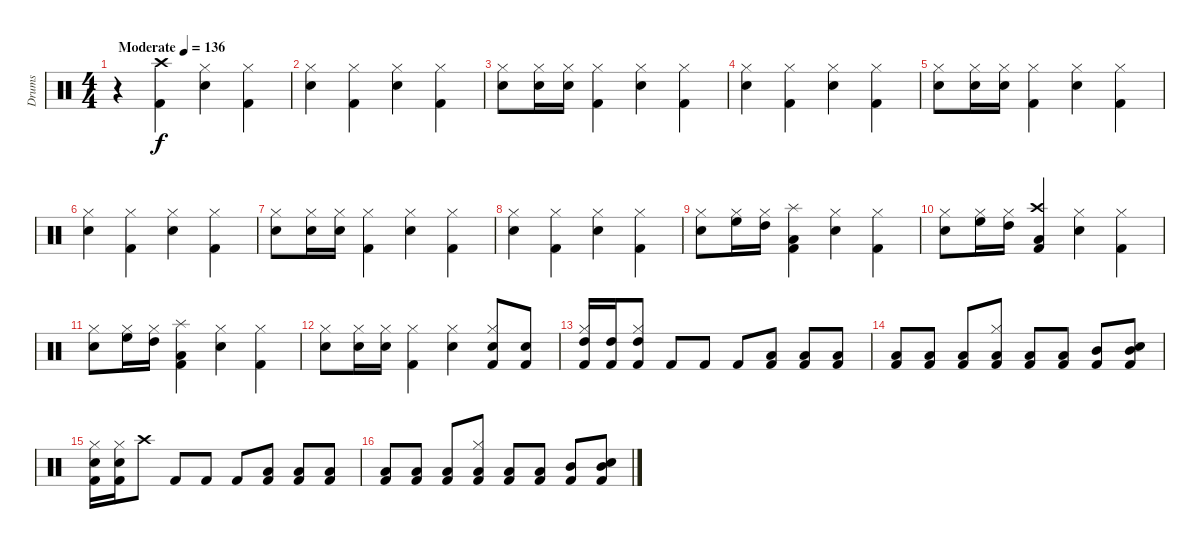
\track ("Drums" "Drums") {instrument percussion}
\staff {score}
\articulation defaults
\ts (4 4)
\tempo (136 "Moderate")
\clef neutral
\ks c
r.4{dy f} ("Kick (hit) 2" "Crash high (hit)").4 ("Hi-Hat (closed)" "Snare (hit) 2").4 ("Kick (hit) 2" "Hi-Hat (closed)").4 |
("Hi-Hat (closed)" "Snare (hit) 2").4 ("Kick (hit) 2" "Hi-Hat (closed)").4 ("Hi-Hat (closed)" "Snare (hit) 2").4 ("Kick (hit) 2" "Hi-Hat (closed)").4 |
("Hi-Hat (closed)" "Snare (hit) 2").8 ("Hi-Hat (closed)" "Snare (hit) 2").16 ("Hi-Hat (closed)" "Snare (hit) 2").16 ("Kick (hit) 2" "Hi-Hat (closed)").4 ("Hi-Hat (closed)" "Snare (hit) 2").4 ("Kick (hit) 2" "Hi-Hat (closed)").4 |
("Hi-Hat (closed)" "Snare (hit) 2").4 ("Kick (hit) 2" "Hi-Hat (closed)").4 ("Hi-Hat (closed)" "Snare (hit) 2").4 ("Kick (hit) 2" "Hi-Hat (closed)").4 |
("Hi-Hat (closed)" "Snare (hit) 2").8 ("Hi-Hat (closed)" "Snare (hit) 2").16 ("Hi-Hat (closed)" "Snare (hit) 2").16 ("Kick (hit) 2" "Hi-Hat (closed)").4 ("Hi-Hat (closed)" "Snare (hit) 2").4 ("Kick (hit) 2" "Hi-Hat (closed)").4 |
("Hi-Hat (closed)" "Snare (hit) 2").4 ("Kick (hit) 2" "Hi-Hat (closed)").4 ("Hi-Hat (closed)" "Snare (hit) 2").4 ("Kick (hit) 2" "Hi-Hat (closed)").4 |
("Hi-Hat (closed)" "Snare (hit) 2").8 ("Hi-Hat (closed)" "Snare (hit) 2").16 ("Hi-Hat (closed)" "Snare (hit) 2").16 ("Kick (hit) 2" "Hi-Hat (closed)").4 ("Hi-Hat (closed)" "Snare (hit) 2").4 ("Kick (hit) 2" "Hi-Hat (closed)").4 |
("Hi-Hat (closed)" "Snare (hit) 2").4 ("Kick (hit) 2" "Hi-Hat (closed)").4 ("Hi-Hat (closed)" "Snare (hit) 2").4 ("Kick (hit) 2" "Hi-Hat (closed)").4 |
("Hi-Hat (closed)" "Snare (hit) 2").8 ("Hi-Hat (closed)" "High Floor Tom (hit)").16 ("Hi-Hat (closed)" "High Tom (hit)").16 ("Kick (hit) 2" "Low Tom (hit)" "Splash (hit)").4 ("Hi-Hat (closed)" "Snare (hit) 2").4 ("Kick (hit) 2" "Hi-Hat (closed)").4 |
("Hi-Hat (closed)" "Snare (hit) 2").8 ("Hi-Hat (closed)" "High Floor Tom (hit)").16 ("Hi-Hat (closed)" "High Tom (hit)").16 ("Kick (hit) 2" "Low Tom (hit)" "Crash high (hit)").4 ("Hi-Hat (closed)" "Snare (hit) 2").4 ("Kick (hit) 2" "Hi-Hat (closed)").4 |
("Hi-Hat (closed)" "Snare (hit) 2").8 ("Hi-Hat (closed)" "High Floor Tom (hit)").16 ("Hi-Hat (closed)" "High Tom (hit)").16 ("Kick (hit) 2" "Low Tom (hit)" "Splash (hit)").4 ("Hi-Hat (closed)" "Snare (hit) 2").4 ("Kick (hit) 2" "Hi-Hat (closed)").4 |
("Hi-Hat (closed)" "Snare (hit) 2").8 ("Hi-Hat (closed)" "Snare (hit) 2").16 ("Hi-Hat (closed)" "Snare (hit) 2").16 ("Kick (hit) 2" "Hi-Hat (closed)").4 ("Hi-Hat (closed)" "Snare (hit) 2").4 ("Kick (hit) 2" "Hi-Hat (closed)" "Snare (hit) 2").8 ("Kick (hit) 2" "Snare (hit) 2").8 |
("Kick (hit) 2" "Hi-Hat (closed)" "High Tom (hit)").16 ("Kick (hit) 2" "High Tom (hit)").16 ("Kick (hit) 2" "Hi-Hat (closed)" "High Tom (hit)").8 "Kick (hit) 2".8 "Kick (hit) 2".8 "Kick (hit) 2".8 ("Kick (hit) 2" "Low Floor Tom (hit)").8 ("Kick (hit) 2" "Low Floor Tom (hit)").8 ("Kick (hit) 2" "Low Floor Tom (hit)").8 |
("Kick (hit) 2" "Low Floor Tom (hit)").8 ("Kick (hit) 2" "Low Floor Tom (hit)").8 ("Kick (hit) 2" "Low Floor Tom (hit)").8 ("Kick (hit) 2" "Low Tom (hit)" "Hi-Hat (closed)").8 ("Kick (hit) 2" "Low Tom (hit)").8 ("Kick (hit) 2" "Low Tom (hit)").8 ("Kick (hit) 2" "Mid Tom (hit)").8 ("Kick (hit) 2" "Mid Tom (hit)" "Snare (hit) 2").8 |
("Kick (hit) 2" "Hi-Hat (closed)" "Snare (hit) 2").16 ("Kick (hit) 2" "Hi-Hat (closed)" "Snare (hit) 2").16 "Crash high (hit)".8 "Kick (hit) 2".8 "Kick (hit) 2".8 "Kick (hit) 2".8 ("Kick (hit) 2" "Low Floor Tom (hit)").8 ("Kick (hit) 2" "Low Floor Tom (hit)").8 ("Kick (hit) 2" "Low Floor Tom (hit)").8 |
("Kick (hit) 2" "Low Floor Tom (hit)").8 ("Kick (hit) 2" "Low Floor Tom (hit)").8 ("Kick (hit) 2" "Low Floor Tom (hit)").8 ("Kick (hit) 2" "Low Tom (hit)" "Hi-Hat (closed)").8 ("Kick (hit) 2" "Low Tom (hit)").8 ("Kick (hit) 2" "Low Tom (hit)").8 ("Kick (hit) 2" "Mid Tom (hit)").8 ("Kick (hit) 2" "Mid Tom (hit)" "Snare (hit) 2").8
